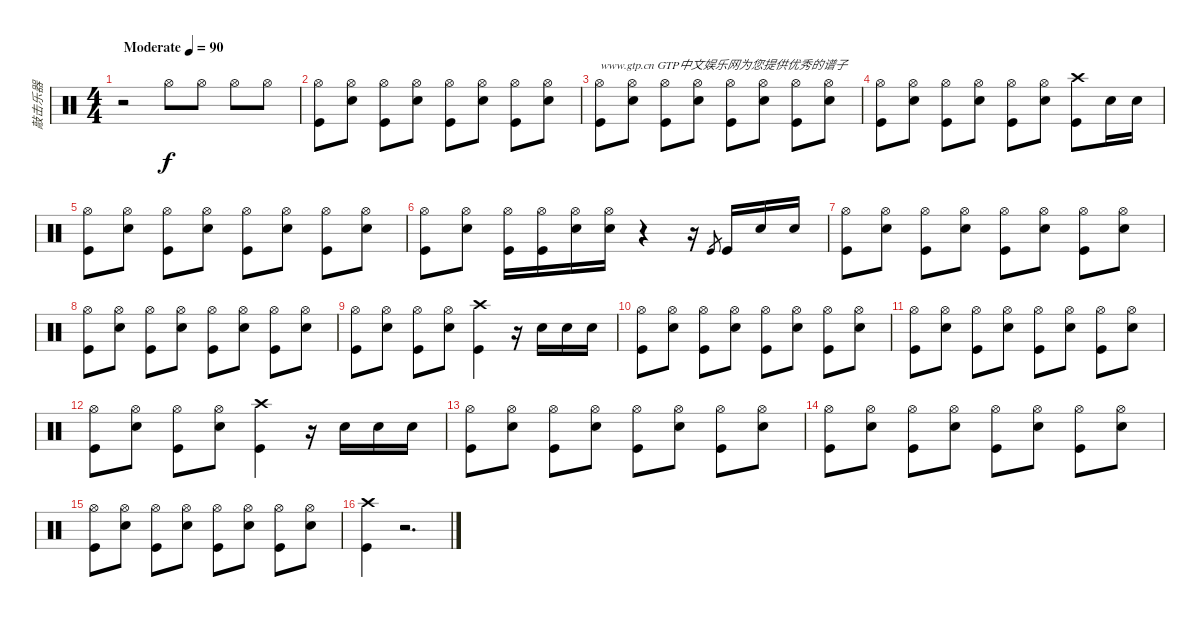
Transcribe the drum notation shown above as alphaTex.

\track ("敲击乐器" "敲击乐器") {instrument percussion}
\staff {score}
\articulation defaults
\ts (4 4)
\tempo (90 "Moderate")
\clef neutral
\ks c
r.2{dy f} "Hi-Hat (open)".8 "Hi-Hat (open)".8 "Hi-Hat (open)".8 "Hi-Hat (open)".8 |
("Hi-Hat (open)" "Kick (hit)").8 ("Hi-Hat (open)" "Snare (hit) 2").8 ("Hi-Hat (open)" "Kick (hit)").8 ("Hi-Hat (open)" "Snare (hit) 2").8 ("Hi-Hat (open)" "Kick (hit)").8 ("Hi-Hat (open)" "Snare (hit) 2").8 ("Hi-Hat (open)" "Kick (hit)").8 ("Hi-Hat (open)" "Snare (hit) 2").8 |
("Hi-Hat (open)" "Kick (hit)").8{txt "www.gtp.cn GTP中文娱乐网为您提供优秀的谱子"} ("Hi-Hat (open)" "Snare (hit) 2").8 ("Hi-Hat (open)" "Kick (hit)").8 ("Hi-Hat (open)" "Snare (hit) 2").8 ("Hi-Hat (open)" "Kick (hit)").8 ("Hi-Hat (open)" "Snare (hit) 2").8 ("Hi-Hat (open)" "Kick (hit)").8 ("Hi-Hat (open)" "Snare (hit) 2").8 |
("Hi-Hat (open)" "Kick (hit)").8 ("Hi-Hat (open)" "Snare (hit) 2").8 ("Hi-Hat (open)" "Kick (hit)").8 ("Hi-Hat (open)" "Snare (hit) 2").8 ("Hi-Hat (open)" "Kick (hit)").8 ("Hi-Hat (open)" "Snare (hit) 2").8 ("Crash high (hit)" "Kick (hit)").8 "Snare (hit) 2".16 "Snare (hit) 2".16 |
("Hi-Hat (open)" "Kick (hit)").8 ("Hi-Hat (open)" "Snare (hit) 2").8 ("Hi-Hat (open)" "Kick (hit)").8 ("Hi-Hat (open)" "Snare (hit) 2").8 ("Hi-Hat (open)" "Kick (hit)").8 ("Hi-Hat (open)" "Snare (hit) 2").8 ("Hi-Hat (open)" "Kick (hit)").8 ("Hi-Hat (open)" "Snare (hit) 2").8 |
("Hi-Hat (open)" "Kick (hit)").8 ("Hi-Hat (open)" "Snare (hit) 2").8 ("Hi-Hat (open)" "Kick (hit)").16 ("Hi-Hat (open)" "Kick (hit)").16 ("Hi-Hat (open)" "Snare (hit) 2").16 ("Hi-Hat (open)" "Snare (hit) 2").16 r.4 r.16 "Kick (hit)".8{gr} "Kick (hit)".16 "Snare (hit) 2".16 "Snare (hit) 2".16 |
("Hi-Hat (open)" "Kick (hit)").8 ("Hi-Hat (open)" "Snare (hit) 2").8 ("Hi-Hat (open)" "Kick (hit)").8 ("Hi-Hat (open)" "Snare (hit) 2").8 ("Hi-Hat (open)" "Kick (hit)").8 ("Hi-Hat (open)" "Snare (hit) 2").8 ("Hi-Hat (open)" "Kick (hit)").8 ("Hi-Hat (open)" "Snare (hit) 2").8 |
("Hi-Hat (open)" "Kick (hit)").8 ("Hi-Hat (open)" "Snare (hit) 2").8 ("Hi-Hat (open)" "Kick (hit)").8 ("Hi-Hat (open)" "Snare (hit) 2").8 ("Hi-Hat (open)" "Kick (hit)").8 ("Hi-Hat (open)" "Snare (hit) 2").8 ("Hi-Hat (open)" "Kick (hit)").8 ("Hi-Hat (open)" "Snare (hit) 2").8 |
("Hi-Hat (open)" "Kick (hit)").8 ("Hi-Hat (open)" "Snare (hit) 2").8 ("Hi-Hat (open)" "Kick (hit)").8 ("Hi-Hat (open)" "Snare (hit) 2").8 ("Crash high (hit)" "Kick (hit)").4 r.16 "Snare (hit) 2".16 "Snare (hit) 2".16 "Snare (hit) 2".16 |
("Hi-Hat (open)" "Kick (hit)").8 ("Hi-Hat (open)" "Snare (hit) 2").8 ("Hi-Hat (open)" "Kick (hit)").8 ("Hi-Hat (open)" "Snare (hit) 2").8 ("Hi-Hat (open)" "Kick (hit)").8 ("Hi-Hat (open)" "Snare (hit) 2").8 ("Hi-Hat (open)" "Kick (hit)").8 ("Hi-Hat (open)" "Snare (hit) 2").8 |
("Hi-Hat (open)" "Kick (hit)").8 ("Hi-Hat (open)" "Snare (hit) 2").8 ("Hi-Hat (open)" "Kick (hit)").8 ("Hi-Hat (open)" "Snare (hit) 2").8 ("Hi-Hat (open)" "Kick (hit)").8 ("Hi-Hat (open)" "Snare (hit) 2").8 ("Hi-Hat (open)" "Kick (hit)").8 ("Hi-Hat (open)" "Snare (hit) 2").8 |
("Hi-Hat (open)" "Kick (hit)").8 ("Hi-Hat (open)" "Snare (hit) 2").8 ("Hi-Hat (open)" "Kick (hit)").8 ("Hi-Hat (open)" "Snare (hit) 2").8 ("Crash high (hit)" "Kick (hit)").4 r.16 "Snare (hit) 2".16 "Snare (hit) 2".16 "Snare (hit) 2".16 |
("Hi-Hat (open)" "Kick (hit)").8 ("Hi-Hat (open)" "Snare (hit) 2").8 ("Hi-Hat (open)" "Kick (hit)").8 ("Hi-Hat (open)" "Snare (hit) 2").8 ("Hi-Hat (open)" "Kick (hit)").8 ("Hi-Hat (open)" "Snare (hit) 2").8 ("Hi-Hat (open)" "Kick (hit)").8 ("Hi-Hat (open)" "Snare (hit) 2").8 |
("Hi-Hat (open)" "Kick (hit)").8 ("Hi-Hat (open)" "Snare (hit) 2").8 ("Hi-Hat (open)" "Kick (hit)").8 ("Hi-Hat (open)" "Snare (hit) 2").8 ("Hi-Hat (open)" "Kick (hit)").8 ("Hi-Hat (open)" "Snare (hit) 2").8 ("Hi-Hat (open)" "Kick (hit)").8 ("Hi-Hat (open)" "Snare (hit) 2").8 |
("Hi-Hat (open)" "Kick (hit)").8 ("Hi-Hat (open)" "Snare (hit) 2").8 ("Hi-Hat (open)" "Kick (hit)").8 ("Hi-Hat (open)" "Snare (hit) 2").8 ("Hi-Hat (open)" "Kick (hit)").8 ("Hi-Hat (open)" "Snare (hit) 2").8 ("Hi-Hat (open)" "Kick (hit)").8 ("Hi-Hat (open)" "Snare (hit) 2").8 |
("Crash high (hit)" "Kick (hit)").4 r.2{d}
